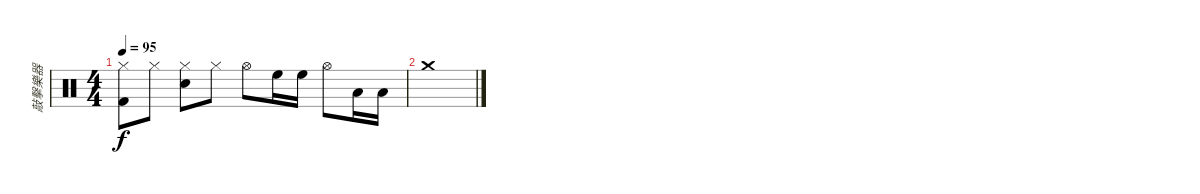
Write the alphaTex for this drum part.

\track ("敲擊樂器" "敲擊樂器") {instrument percussion}
\staff {score}
\articulation defaults
\ts (4 4)
\tempo 95
\clef neutral
\ks c
("Hi-Hat (closed)" "Kick (hit) 2").8{dy f} "Hi-Hat (closed)".8 ("Hi-Hat (closed)" "Snare (hit) 2").8 "Hi-Hat (closed)".8 "Hi-Hat (open)".8 "High Floor Tom (hit)".16 "High Floor Tom (hit)".16 "Hi-Hat (open)".8 "Low Tom (hit)".16 "Low Tom (hit)".16 |
"Crash medium (hit)".1
